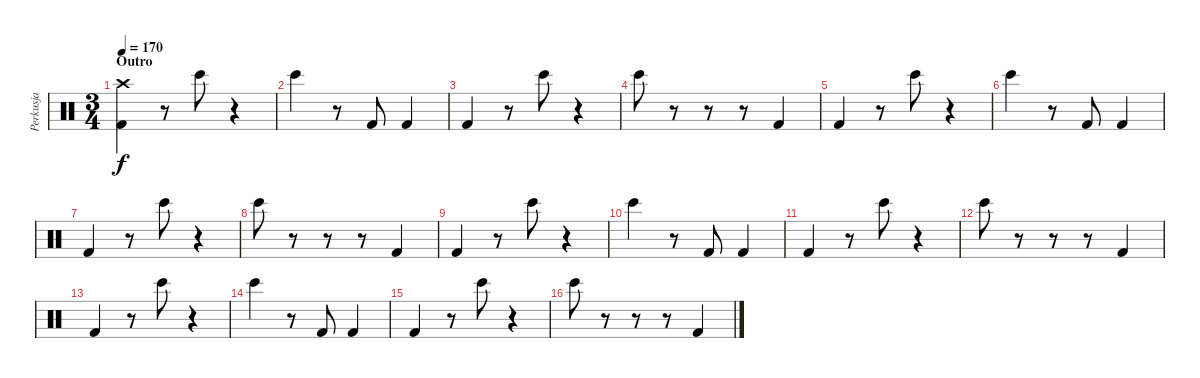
\track ("Perkusja" "Perkusja") {instrument percussion}
\staff {score}
\articulation defaults
\ts (3 4)
\section ("" "Outro")
\tempo 170
\clef neutral
\ks c
("Kick (hit) 2" "Crash high (hit)").4{dy f} r.8 "Bongo High (hit)".8 r.4 |
"Bongo High (hit)".4 r.8 "Kick (hit) 2".8 "Kick (hit) 2".4 |
"Kick (hit) 2".4 r.8 "Bongo High (hit)".8 r.4 |
"Bongo High (hit)".8 r.8 r.8 r.8 "Kick (hit) 2".4 |
"Kick (hit) 2".4 r.8 "Bongo High (hit)".8 r.4 |
"Bongo High (hit)".4 r.8 "Kick (hit) 2".8 "Kick (hit) 2".4 |
"Kick (hit) 2".4 r.8 "Bongo High (hit)".8 r.4 |
"Bongo High (hit)".8 r.8 r.8 r.8 "Kick (hit) 2".4 |
"Kick (hit) 2".4{volume 0} r.8 "Bongo High (hit)".8 r.4 |
"Bongo High (hit)".4 r.8 "Kick (hit) 2".8 "Kick (hit) 2".4 |
"Kick (hit) 2".4 r.8 "Bongo High (hit)".8 r.4 |
"Bongo High (hit)".8 r.8 r.8 r.8 "Kick (hit) 2".4 |
"Kick (hit) 2".4 r.8 "Bongo High (hit)".8 r.4 |
"Bongo High (hit)".4 r.8 "Kick (hit) 2".8 "Kick (hit) 2".4 |
"Kick (hit) 2".4 r.8 "Bongo High (hit)".8 r.4 |
"Bongo High (hit)".8 r.8 r.8 r.8 "Kick (hit) 2".4
